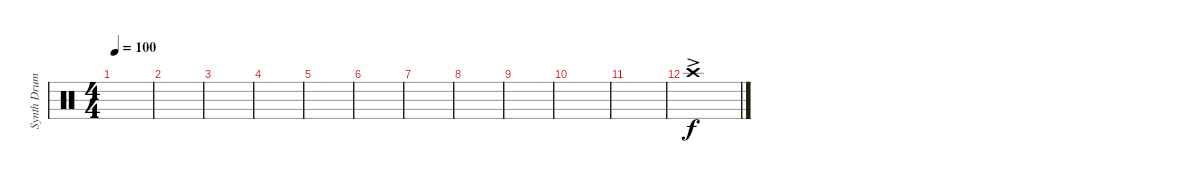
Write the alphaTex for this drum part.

\track ("Synth Drums - John F" "Synth Drum") {instrument percussion}
\staff {score}
\articulation defaults
\ts (4 4)
\tempo 100
\clef neutral
\ks c
|
|
|
|
|
|
|
|
|
|
|
"Crash high (hit)"{ac}.1
